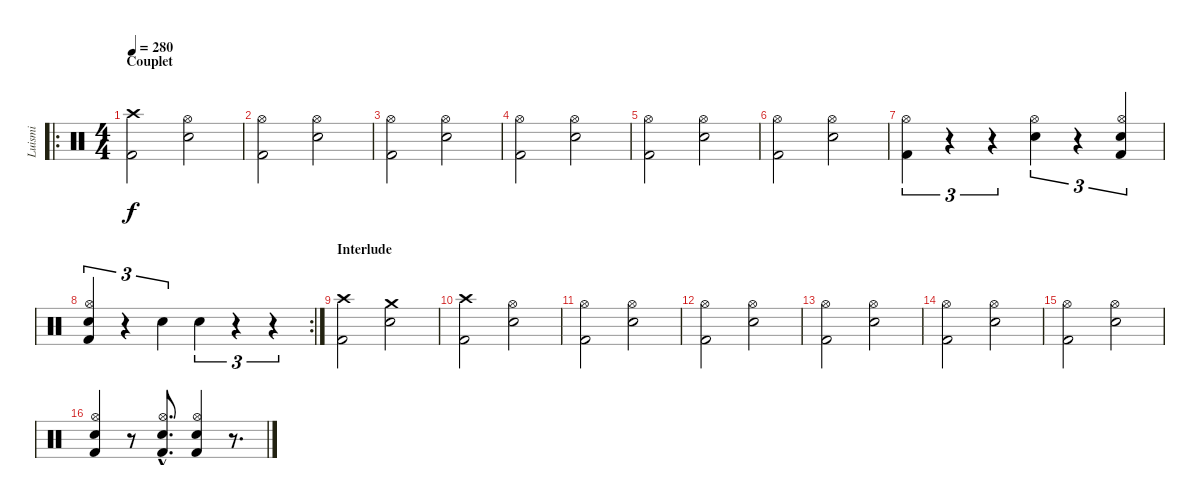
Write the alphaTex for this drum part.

\track ("Luismi" "Luismi") {instrument percussion}
\staff {score}
\articulation defaults
\ro
\ts (4 4)
\section ("" "Couplet")
\tempo 280
\clef neutral
\ks c
("Crash high (hit)" "Kick (hit) 2").2{dy f} ("Hi-Hat (open)" "Snare (hit) 2").2 |
("Hi-Hat (open)" "Kick (hit) 2").2 ("Hi-Hat (open)" "Snare (hit) 2").2 |
("Hi-Hat (open)" "Kick (hit) 2").2 ("Hi-Hat (open)" "Snare (hit) 2").2 |
("Hi-Hat (open)" "Kick (hit) 2").2 ("Hi-Hat (open)" "Snare (hit) 2").2 |
("Hi-Hat (open)" "Kick (hit) 2").2 ("Hi-Hat (open)" "Snare (hit) 2").2 |
("Hi-Hat (open)" "Kick (hit) 2").2 ("Hi-Hat (open)" "Snare (hit) 2").2 |
("Hi-Hat (open)" "Kick (hit) 2").4{tu (3 2)} r.4{tu (3 2)} r.4{tu (3 2)} ("Hi-Hat (open)" "Snare (hit) 2").4{tu (3 2)} r.4{tu (3 2)} ("Hi-Hat (open)" "Snare (hit) 2" "Kick (hit) 2").4{tu (3 2)} |
\rc 2
("Hi-Hat (open)" "Snare (hit) 2" "Kick (hit) 2").4{tu (3 2)} r.4{tu (3 2)} "Snare (hit) 2".4{tu (3 2)} "Snare (hit) 2".4{tu (3 2)} r.4{tu (3 2)} r.4{tu (3 2)} |
\section ("" "Interlude")
("Crash high (hit)" "Kick (hit) 2").2 ("Crash medium (hit)" "Snare (hit) 2").2 |
("Crash high (hit)" "Kick (hit) 2").2 ("Hi-Hat (open)" "Snare (hit) 2").2 |
("Hi-Hat (open)" "Kick (hit) 2").2 ("Hi-Hat (open)" "Snare (hit) 2").2 |
("Hi-Hat (open)" "Kick (hit) 2").2 ("Hi-Hat (open)" "Snare (hit) 2").2 |
("Hi-Hat (open)" "Kick (hit) 2").2 ("Hi-Hat (open)" "Snare (hit) 2").2 |
("Hi-Hat (open)" "Kick (hit) 2").2 ("Hi-Hat (open)" "Snare (hit) 2").2 |
("Hi-Hat (open)" "Kick (hit) 2").2 ("Hi-Hat (open)" "Snare (hit) 2").2 |
("Hi-Hat (open)" "Snare (hit) 2" "Kick (hit) 2").4 r.8 ("Hi-Hat (open)"{hac} "Snare (hit) 2"{hac} "Kick (hit) 2"{hac}).8{d} ("Hi-Hat (open)" "Snare (hit) 2" "Kick (hit) 2").4 r.8{d}
